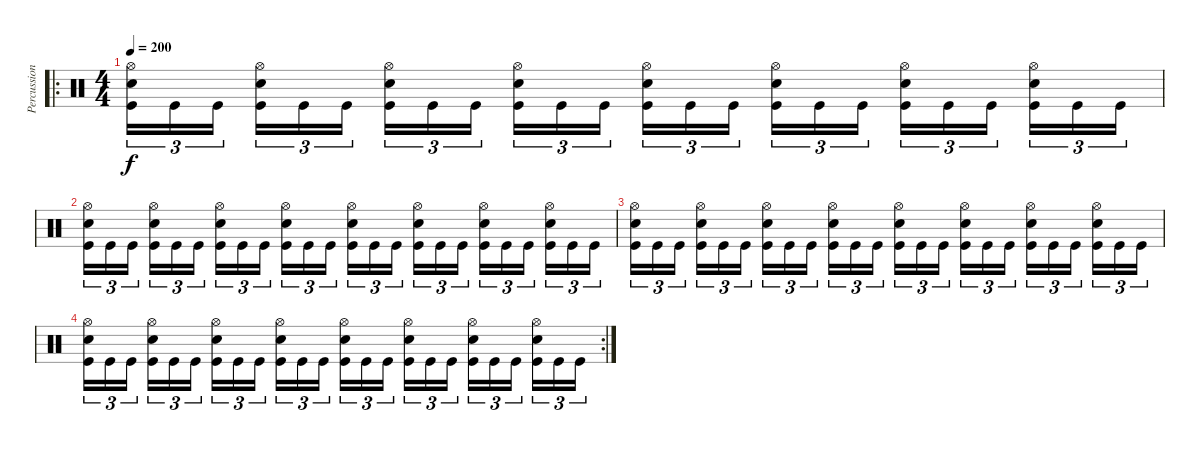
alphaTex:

\track ("Percussion" "Percussion") {instrument percussion}
\staff {score}
\articulation defaults
\ro
\ts (4 4)
\tempo 200
\clef neutral
\ks c
("Hi-Hat (open)" "Snare (hit) 2" "Kick (hit)").16{tu (3 2) dy f} "Kick (hit)".16{tu (3 2)} "Kick (hit)".16{tu (3 2) beam splitsecondary} ("Hi-Hat (open)" "Snare (hit) 2" "Kick (hit)").16{tu (3 2)} "Kick (hit)".16{tu (3 2)} "Kick (hit)".16{tu (3 2)} ("Hi-Hat (open)" "Snare (hit) 2" "Kick (hit)").16{tu (3 2)} "Kick (hit)".16{tu (3 2)} "Kick (hit)".16{tu (3 2) beam splitsecondary} ("Hi-Hat (open)" "Snare (hit) 2" "Kick (hit)").16{tu (3 2)} "Kick (hit)".16{tu (3 2)} "Kick (hit)".16{tu (3 2)} ("Hi-Hat (open)" "Snare (hit) 2" "Kick (hit)").16{tu (3 2)} "Kick (hit)".16{tu (3 2)} "Kick (hit)".16{tu (3 2) beam splitsecondary} ("Hi-Hat (open)" "Snare (hit) 2" "Kick (hit)").16{tu (3 2)} "Kick (hit)".16{tu (3 2)} "Kick (hit)".16{tu (3 2)} ("Hi-Hat (open)" "Snare (hit) 2" "Kick (hit)").16{tu (3 2)} "Kick (hit)".16{tu (3 2)} "Kick (hit)".16{tu (3 2) beam splitsecondary} ("Hi-Hat (open)" "Snare (hit) 2" "Kick (hit)").16{tu (3 2)} "Kick (hit)".16{tu (3 2)} "Kick (hit)".16{tu (3 2)} |
("Hi-Hat (open)" "Snare (hit) 2" "Kick (hit)").16{tu (3 2)} "Kick (hit)".16{tu (3 2)} "Kick (hit)".16{tu (3 2) beam splitsecondary} ("Hi-Hat (open)" "Snare (hit) 2" "Kick (hit)").16{tu (3 2)} "Kick (hit)".16{tu (3 2)} "Kick (hit)".16{tu (3 2)} ("Hi-Hat (open)" "Snare (hit) 2" "Kick (hit)").16{tu (3 2)} "Kick (hit)".16{tu (3 2)} "Kick (hit)".16{tu (3 2) beam splitsecondary} ("Hi-Hat (open)" "Snare (hit) 2" "Kick (hit)").16{tu (3 2)} "Kick (hit)".16{tu (3 2)} "Kick (hit)".16{tu (3 2)} ("Hi-Hat (open)" "Snare (hit) 2" "Kick (hit)").16{tu (3 2)} "Kick (hit)".16{tu (3 2)} "Kick (hit)".16{tu (3 2) beam splitsecondary} ("Hi-Hat (open)" "Snare (hit) 2" "Kick (hit)").16{tu (3 2)} "Kick (hit)".16{tu (3 2)} "Kick (hit)".16{tu (3 2)} ("Hi-Hat (open)" "Snare (hit) 2" "Kick (hit)").16{tu (3 2)} "Kick (hit)".16{tu (3 2)} "Kick (hit)".16{tu (3 2) beam splitsecondary} ("Hi-Hat (open)" "Snare (hit) 2" "Kick (hit)").16{tu (3 2)} "Kick (hit)".16{tu (3 2)} "Kick (hit)".16{tu (3 2)} |
("Hi-Hat (open)" "Snare (hit) 2" "Kick (hit)").16{tu (3 2)} "Kick (hit)".16{tu (3 2)} "Kick (hit)".16{tu (3 2) beam splitsecondary} ("Hi-Hat (open)" "Snare (hit) 2" "Kick (hit)").16{tu (3 2)} "Kick (hit)".16{tu (3 2)} "Kick (hit)".16{tu (3 2)} ("Hi-Hat (open)" "Snare (hit) 2" "Kick (hit)").16{tu (3 2)} "Kick (hit)".16{tu (3 2)} "Kick (hit)".16{tu (3 2) beam splitsecondary} ("Hi-Hat (open)" "Snare (hit) 2" "Kick (hit)").16{tu (3 2)} "Kick (hit)".16{tu (3 2)} "Kick (hit)".16{tu (3 2)} ("Hi-Hat (open)" "Snare (hit) 2" "Kick (hit)").16{tu (3 2)} "Kick (hit)".16{tu (3 2)} "Kick (hit)".16{tu (3 2) beam splitsecondary} ("Hi-Hat (open)" "Snare (hit) 2" "Kick (hit)").16{tu (3 2)} "Kick (hit)".16{tu (3 2)} "Kick (hit)".16{tu (3 2)} ("Hi-Hat (open)" "Snare (hit) 2" "Kick (hit)").16{tu (3 2)} "Kick (hit)".16{tu (3 2)} "Kick (hit)".16{tu (3 2) beam splitsecondary} ("Hi-Hat (open)" "Snare (hit) 2" "Kick (hit)").16{tu (3 2)} "Kick (hit)".16{tu (3 2)} "Kick (hit)".16{tu (3 2)} |
\rc 2
("Hi-Hat (open)" "Snare (hit) 2" "Kick (hit)").16{tu (3 2)} "Kick (hit)".16{tu (3 2)} "Kick (hit)".16{tu (3 2) beam splitsecondary} ("Hi-Hat (open)" "Snare (hit) 2" "Kick (hit)").16{tu (3 2)} "Kick (hit)".16{tu (3 2)} "Kick (hit)".16{tu (3 2)} ("Hi-Hat (open)" "Snare (hit) 2" "Kick (hit)").16{tu (3 2)} "Kick (hit)".16{tu (3 2)} "Kick (hit)".16{tu (3 2) beam splitsecondary} ("Hi-Hat (open)" "Snare (hit) 2" "Kick (hit)").16{tu (3 2)} "Kick (hit)".16{tu (3 2)} "Kick (hit)".16{tu (3 2)} ("Hi-Hat (open)" "Snare (hit) 2" "Kick (hit)").16{tu (3 2)} "Kick (hit)".16{tu (3 2)} "Kick (hit)".16{tu (3 2) beam splitsecondary} ("Hi-Hat (open)" "Snare (hit) 2" "Kick (hit)").16{tu (3 2)} "Kick (hit)".16{tu (3 2)} "Kick (hit)".16{tu (3 2)} ("Hi-Hat (open)" "Snare (hit) 2" "Kick (hit)").16{tu (3 2)} "Kick (hit)".16{tu (3 2)} "Kick (hit)".16{tu (3 2) beam splitsecondary} ("Hi-Hat (open)" "Snare (hit) 2" "Kick (hit)").16{tu (3 2)} "Kick (hit)".16{tu (3 2)} "Kick (hit)".16{tu (3 2)}
